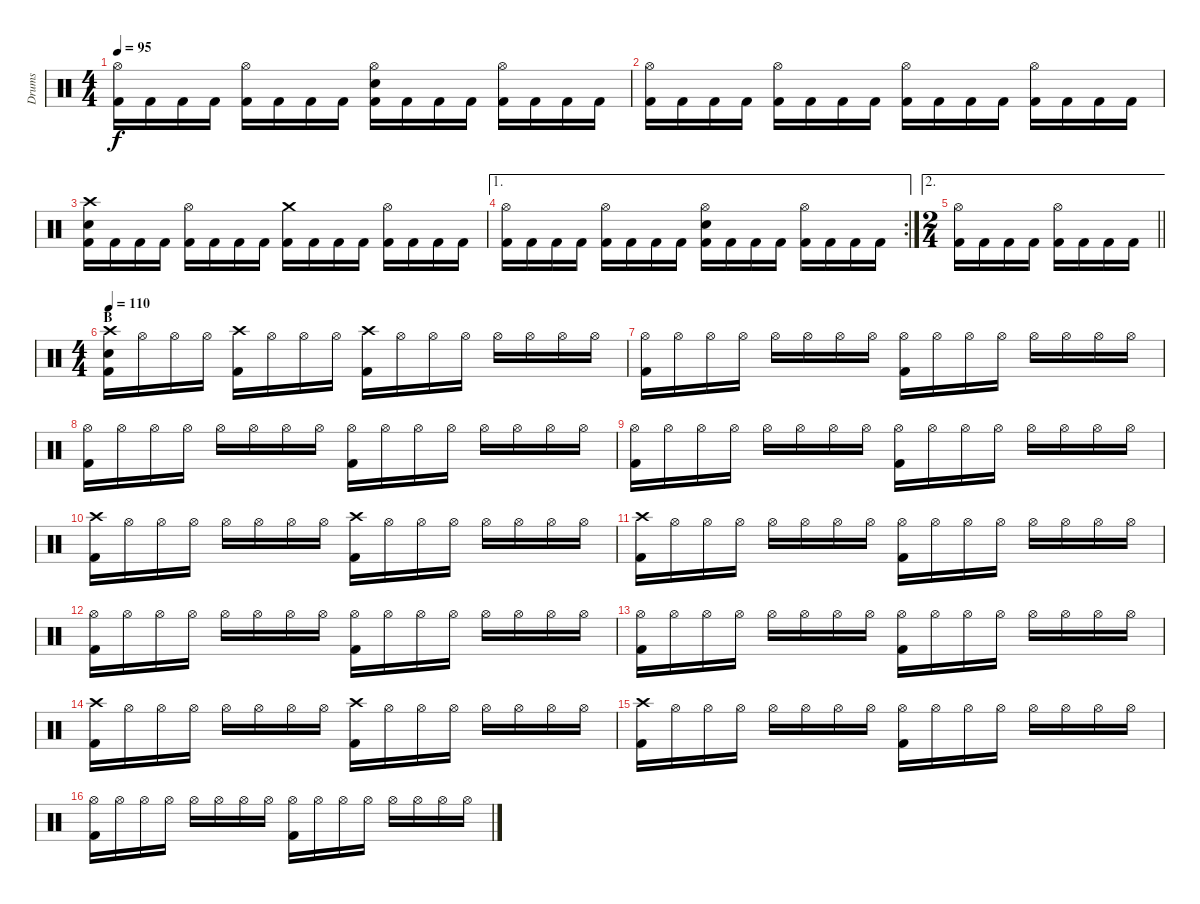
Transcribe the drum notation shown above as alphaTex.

\track ("Drums" "Drums") {instrument percussion}
\staff {score}
\articulation defaults
\ts (4 4)
\tempo 95
\clef neutral
\ks c
("Hi-Hat (open)" "Kick (hit) 2").16{dy f} "Kick (hit) 2".16 "Kick (hit) 2".16 "Kick (hit) 2".16 ("Hi-Hat (open)" "Kick (hit) 2").16 "Kick (hit) 2".16 "Kick (hit) 2".16 "Kick (hit) 2".16 ("Hi-Hat (open)" "Snare (hit) 2" "Kick (hit) 2").16 "Kick (hit) 2".16 "Kick (hit) 2".16 "Kick (hit) 2".16 ("Hi-Hat (open)" "Kick (hit) 2").16 "Kick (hit) 2".16 "Kick (hit) 2".16 "Kick (hit) 2".16 |
("Hi-Hat (open)" "Kick (hit) 2").16 "Kick (hit) 2".16 "Kick (hit) 2".16 "Kick (hit) 2".16 ("Hi-Hat (open)" "Kick (hit) 2").16 "Kick (hit) 2".16 "Kick (hit) 2".16 "Kick (hit) 2".16 ("Hi-Hat (open)" "Kick (hit) 2").16 "Kick (hit) 2".16 "Kick (hit) 2".16 "Kick (hit) 2".16 ("Hi-Hat (open)" "Kick (hit) 2").16 "Kick (hit) 2".16 "Kick (hit) 2".16 "Kick (hit) 2".16 |
("Crash high (hit)" "Snare (hit) 2" "Kick (hit) 2").16 "Kick (hit) 2".16 "Kick (hit) 2".16 "Kick (hit) 2".16 ("Hi-Hat (open)" "Kick (hit) 2").16 "Kick (hit) 2".16 "Kick (hit) 2".16 "Kick (hit) 2".16 ("Crash medium (hit)" "Kick (hit) 2").16 "Kick (hit) 2".16 "Kick (hit) 2".16 "Kick (hit) 2".16 ("Hi-Hat (open)" "Kick (hit) 2").16 "Kick (hit) 2".16 "Kick (hit) 2".16 "Kick (hit) 2".16 |
\ae 1
\rc 2
("Hi-Hat (open)" "Kick (hit) 2").16 "Kick (hit) 2".16 "Kick (hit) 2".16 "Kick (hit) 2".16 ("Hi-Hat (open)" "Kick (hit) 2").16 "Kick (hit) 2".16 "Kick (hit) 2".16 "Kick (hit) 2".16 ("Hi-Hat (open)" "Snare (hit) 2" "Kick (hit) 2").16 "Kick (hit) 2".16 "Kick (hit) 2".16 "Kick (hit) 2".16 ("Hi-Hat (open)" "Kick (hit) 2").16 "Kick (hit) 2".16 "Kick (hit) 2".16 "Kick (hit) 2".16 |
\ae 2
\ts (2 4)
\barLineRight lightlight
("Hi-Hat (open)" "Kick (hit) 2").16 "Kick (hit) 2".16 "Kick (hit) 2".16 "Kick (hit) 2".16 ("Hi-Hat (open)" "Kick (hit) 2").16 "Kick (hit) 2".16 "Kick (hit) 2".16 "Kick (hit) 2".16 |
\ts (4 4)
\section ("" "B")
\tempo 110
("Crash high (hit)" "Snare (hit) 2" "Kick (hit) 2").16 "Hi-Hat (open)".16 "Hi-Hat (open)".16 "Hi-Hat (open)".16 ("Crash high (hit)" "Kick (hit) 2").16 "Hi-Hat (open)".16 "Hi-Hat (open)".16 "Hi-Hat (open)".16 ("Crash high (hit)" "Kick (hit) 2").16 "Hi-Hat (open)".16 "Hi-Hat (open)".16 "Hi-Hat (open)".16 "Hi-Hat (open)".16 "Hi-Hat (open)".16 "Hi-Hat (open)".16 "Hi-Hat (open)".16 |
("Hi-Hat (open)" "Kick (hit) 2").16 "Hi-Hat (open)".16 "Hi-Hat (open)".16 "Hi-Hat (open)".16 "Hi-Hat (open)".16 "Hi-Hat (open)".16 "Hi-Hat (open)".16 "Hi-Hat (open)".16 ("Hi-Hat (open)" "Kick (hit) 2").16 "Hi-Hat (open)".16 "Hi-Hat (open)".16 "Hi-Hat (open)".16 "Hi-Hat (open)".16 "Hi-Hat (open)".16 "Hi-Hat (open)".16 "Hi-Hat (open)".16 |
("Hi-Hat (open)" "Kick (hit) 2").16 "Hi-Hat (open)".16 "Hi-Hat (open)".16 "Hi-Hat (open)".16 "Hi-Hat (open)".16 "Hi-Hat (open)".16 "Hi-Hat (open)".16 "Hi-Hat (open)".16 ("Hi-Hat (open)" "Kick (hit) 2").16 "Hi-Hat (open)".16 "Hi-Hat (open)".16 "Hi-Hat (open)".16 "Hi-Hat (open)".16 "Hi-Hat (open)".16 "Hi-Hat (open)".16 "Hi-Hat (open)".16 |
("Hi-Hat (open)" "Kick (hit) 2").16 "Hi-Hat (open)".16 "Hi-Hat (open)".16 "Hi-Hat (open)".16 "Hi-Hat (open)".16 "Hi-Hat (open)".16 "Hi-Hat (open)".16 "Hi-Hat (open)".16 ("Hi-Hat (open)" "Kick (hit) 2").16 "Hi-Hat (open)".16 "Hi-Hat (open)".16 "Hi-Hat (open)".16 "Hi-Hat (open)".16 "Hi-Hat (open)".16 "Hi-Hat (open)".16 "Hi-Hat (open)".16 |
("Crash high (hit)" "Kick (hit) 2").16 "Hi-Hat (open)".16 "Hi-Hat (open)".16 "Hi-Hat (open)".16 "Hi-Hat (open)".16 "Hi-Hat (open)".16 "Hi-Hat (open)".16 "Hi-Hat (open)".16 ("Crash high (hit)" "Kick (hit) 2").16 "Hi-Hat (open)".16 "Hi-Hat (open)".16 "Hi-Hat (open)".16 "Hi-Hat (open)".16 "Hi-Hat (open)".16 "Hi-Hat (open)".16 "Hi-Hat (open)".16 |
("Crash high (hit)" "Kick (hit) 2").16 "Hi-Hat (open)".16 "Hi-Hat (open)".16 "Hi-Hat (open)".16 "Hi-Hat (open)".16 "Hi-Hat (open)".16 "Hi-Hat (open)".16 "Hi-Hat (open)".16 ("Hi-Hat (open)" "Kick (hit) 2").16 "Hi-Hat (open)".16 "Hi-Hat (open)".16 "Hi-Hat (open)".16 "Hi-Hat (open)".16 "Hi-Hat (open)".16 "Hi-Hat (open)".16 "Hi-Hat (open)".16 |
("Hi-Hat (open)" "Kick (hit) 2").16 "Hi-Hat (open)".16 "Hi-Hat (open)".16 "Hi-Hat (open)".16 "Hi-Hat (open)".16 "Hi-Hat (open)".16 "Hi-Hat (open)".16 "Hi-Hat (open)".16 ("Hi-Hat (open)" "Kick (hit) 2").16 "Hi-Hat (open)".16 "Hi-Hat (open)".16 "Hi-Hat (open)".16 "Hi-Hat (open)".16 "Hi-Hat (open)".16 "Hi-Hat (open)".16 "Hi-Hat (open)".16 |
("Hi-Hat (open)" "Kick (hit) 2").16 "Hi-Hat (open)".16 "Hi-Hat (open)".16 "Hi-Hat (open)".16 "Hi-Hat (open)".16 "Hi-Hat (open)".16 "Hi-Hat (open)".16 "Hi-Hat (open)".16 ("Hi-Hat (open)" "Kick (hit) 2").16 "Hi-Hat (open)".16 "Hi-Hat (open)".16 "Hi-Hat (open)".16 "Hi-Hat (open)".16 "Hi-Hat (open)".16 "Hi-Hat (open)".16 "Hi-Hat (open)".16 |
("Crash high (hit)" "Kick (hit) 2").16 "Hi-Hat (open)".16 "Hi-Hat (open)".16 "Hi-Hat (open)".16 "Hi-Hat (open)".16 "Hi-Hat (open)".16 "Hi-Hat (open)".16 "Hi-Hat (open)".16 ("Crash high (hit)" "Kick (hit) 2").16 "Hi-Hat (open)".16 "Hi-Hat (open)".16 "Hi-Hat (open)".16 "Hi-Hat (open)".16 "Hi-Hat (open)".16 "Hi-Hat (open)".16 "Hi-Hat (open)".16 |
("Crash high (hit)" "Kick (hit) 2").16 "Hi-Hat (open)".16 "Hi-Hat (open)".16 "Hi-Hat (open)".16 "Hi-Hat (open)".16 "Hi-Hat (open)".16 "Hi-Hat (open)".16 "Hi-Hat (open)".16 ("Hi-Hat (open)" "Kick (hit) 2").16 "Hi-Hat (open)".16 "Hi-Hat (open)".16 "Hi-Hat (open)".16 "Hi-Hat (open)".16 "Hi-Hat (open)".16 "Hi-Hat (open)".16 "Hi-Hat (open)".16 |
("Hi-Hat (open)" "Kick (hit) 2").16 "Hi-Hat (open)".16 "Hi-Hat (open)".16 "Hi-Hat (open)".16 "Hi-Hat (open)".16 "Hi-Hat (open)".16 "Hi-Hat (open)".16 "Hi-Hat (open)".16 ("Hi-Hat (open)" "Kick (hit) 2").16 "Hi-Hat (open)".16 "Hi-Hat (open)".16 "Hi-Hat (open)".16 "Hi-Hat (open)".16 "Hi-Hat (open)".16 "Hi-Hat (open)".16 "Hi-Hat (open)".16
